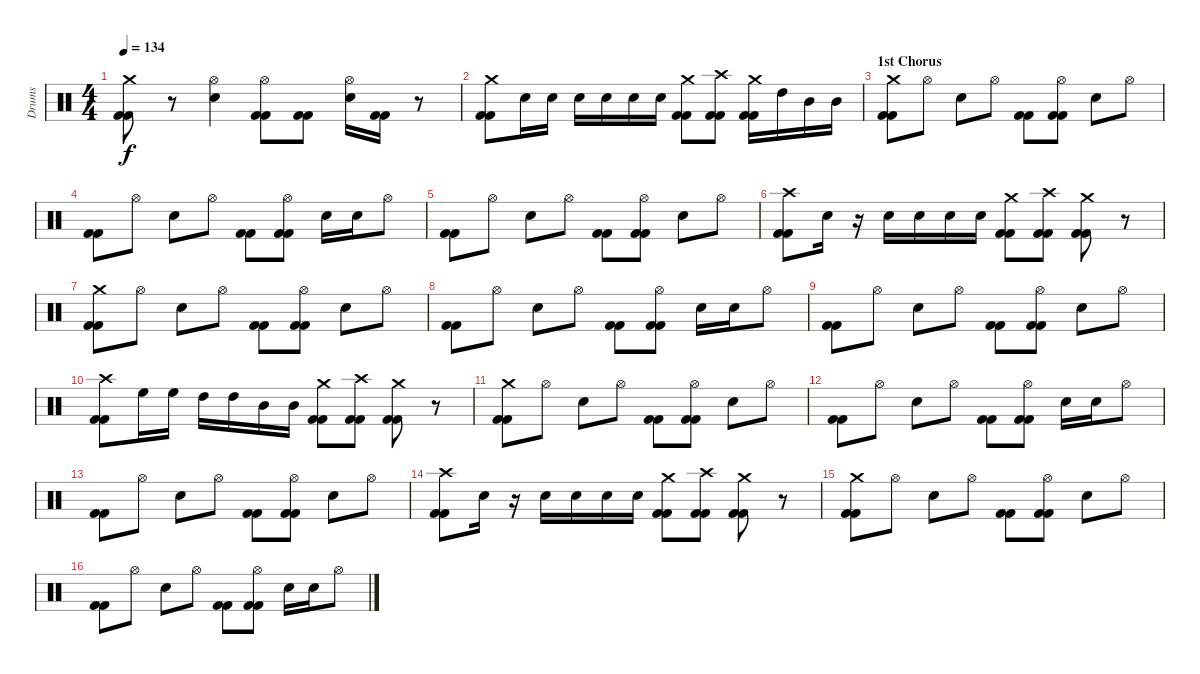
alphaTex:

\track ("Drums" "Drums") {instrument percussion}
\staff {score}
\articulation defaults
\ts (4 4)
\tempo 134
\clef neutral
\ks c
("Crash medium (hit)" "Kick (hit) 2" "Kick (hit) 2").8{dy f} r.8 ("Hi-Hat (open)" "Electric Snare (hit)").4 ("Hi-Hat (open)" "Kick (hit) 2" "Kick (hit) 2").8 ("Kick (hit) 2" "Kick (hit) 2").8 ("Hi-Hat (open)" "Electric Snare (hit)").16 ("Kick (hit) 2" "Kick (hit) 2").16 r.8 |
("Crash medium (hit)" "Kick (hit) 2" "Kick (hit) 2").8 "Electric Snare (hit)".16 "Electric Snare (hit)".16 "Electric Snare (hit)".16 "Electric Snare (hit)".16 "Electric Snare (hit)".16 "Electric Snare (hit)".16 ("Crash medium (hit)" "Kick (hit) 2" "Kick (hit) 2").8 ("Crash high (hit)" "Kick (hit) 2" "Kick (hit) 2").8 ("Crash medium (hit)" "Kick (hit) 2" "Kick (hit) 2").16 "High Tom (hit)".16 "Mid Tom (hit)".16 "Mid Tom (hit)".16 |
\section ("" "1st Chorus")
("Crash medium (hit)" "Kick (hit) 2" "Kick (hit) 2").8 "Hi-Hat (open)".8 "Electric Snare (hit)".8 "Hi-Hat (open)".8 ("Kick (hit) 2" "Kick (hit) 2").8 ("Hi-Hat (open)" "Kick (hit) 2" "Kick (hit) 2").8 "Electric Snare (hit)".8 "Hi-Hat (open)".8 |
("Kick (hit) 2" "Kick (hit) 2").8 "Hi-Hat (open)".8 "Electric Snare (hit)".8 "Hi-Hat (open)".8 ("Kick (hit) 2" "Kick (hit) 2").8 ("Hi-Hat (open)" "Kick (hit) 2" "Kick (hit) 2").8 "Electric Snare (hit)".16 "Electric Snare (hit)".16 "Hi-Hat (open)".8 |
("Kick (hit) 2" "Kick (hit) 2").8 "Hi-Hat (open)".8 "Electric Snare (hit)".8 "Hi-Hat (open)".8 ("Kick (hit) 2" "Kick (hit) 2").8 ("Hi-Hat (open)" "Kick (hit) 2" "Kick (hit) 2").8 "Electric Snare (hit)".8 "Hi-Hat (open)".8 |
("Crash high (hit)" "Kick (hit) 2" "Kick (hit) 2").8 "Electric Snare (hit)".16 r.16 "Electric Snare (hit)".16 "Electric Snare (hit)".16 "Electric Snare (hit)".16 "Electric Snare (hit)".16 ("Crash medium (hit)" "Kick (hit) 2" "Kick (hit) 2").8 ("Crash high (hit)" "Kick (hit) 2" "Kick (hit) 2").8 ("Crash medium (hit)" "Kick (hit) 2" "Kick (hit) 2").8 r.8 |
("Crash medium (hit)" "Kick (hit) 2" "Kick (hit) 2").8 "Hi-Hat (open)".8 "Electric Snare (hit)".8 "Hi-Hat (open)".8 ("Kick (hit) 2" "Kick (hit) 2").8 ("Hi-Hat (open)" "Kick (hit) 2" "Kick (hit) 2").8 "Electric Snare (hit)".8 "Hi-Hat (open)".8 |
("Kick (hit) 2" "Kick (hit) 2").8 "Hi-Hat (open)".8 "Electric Snare (hit)".8 "Hi-Hat (open)".8 ("Kick (hit) 2" "Kick (hit) 2").8 ("Hi-Hat (open)" "Kick (hit) 2" "Kick (hit) 2").8 "Electric Snare (hit)".16 "Electric Snare (hit)".16 "Hi-Hat (open)".8 |
("Kick (hit) 2" "Kick (hit) 2").8 "Hi-Hat (open)".8 "Electric Snare (hit)".8 "Hi-Hat (open)".8 ("Kick (hit) 2" "Kick (hit) 2").8 ("Hi-Hat (open)" "Kick (hit) 2" "Kick (hit) 2").8 "Electric Snare (hit)".8 "Hi-Hat (open)".8 |
("Crash high (hit)" "Kick (hit) 2" "Kick (hit) 2").8 "High Floor Tom (hit)".16 "High Floor Tom (hit)".16 "High Tom (hit)".16 "High Tom (hit)".16 "Mid Tom (hit)".16 "Mid Tom (hit)".16 ("Crash medium (hit)" "Kick (hit) 2" "Kick (hit) 2").8 ("Crash high (hit)" "Kick (hit) 2" "Kick (hit) 2").8 ("Crash medium (hit)" "Kick (hit) 2" "Kick (hit) 2").8 r.8 |
("Crash medium (hit)" "Kick (hit) 2" "Kick (hit) 2").8 "Hi-Hat (open)".8 "Electric Snare (hit)".8 "Hi-Hat (open)".8 ("Kick (hit) 2" "Kick (hit) 2").8 ("Hi-Hat (open)" "Kick (hit) 2" "Kick (hit) 2").8 "Electric Snare (hit)".8 "Hi-Hat (open)".8 |
("Kick (hit) 2" "Kick (hit) 2").8 "Hi-Hat (open)".8 "Electric Snare (hit)".8 "Hi-Hat (open)".8 ("Kick (hit) 2" "Kick (hit) 2").8 ("Hi-Hat (open)" "Kick (hit) 2" "Kick (hit) 2").8 "Electric Snare (hit)".16 "Electric Snare (hit)".16 "Hi-Hat (open)".8 |
("Kick (hit) 2" "Kick (hit) 2").8 "Hi-Hat (open)".8 "Electric Snare (hit)".8 "Hi-Hat (open)".8 ("Kick (hit) 2" "Kick (hit) 2").8 ("Hi-Hat (open)" "Kick (hit) 2" "Kick (hit) 2").8 "Electric Snare (hit)".8 "Hi-Hat (open)".8 |
("Crash high (hit)" "Kick (hit) 2" "Kick (hit) 2").8 "Electric Snare (hit)".16 r.16 "Electric Snare (hit)".16 "Electric Snare (hit)".16 "Electric Snare (hit)".16 "Electric Snare (hit)".16 ("Crash medium (hit)" "Kick (hit) 2" "Kick (hit) 2").8 ("Crash high (hit)" "Kick (hit) 2" "Kick (hit) 2").8 ("Crash medium (hit)" "Kick (hit) 2" "Kick (hit) 2").8 r.8 |
("Crash medium (hit)" "Kick (hit) 2" "Kick (hit) 2").8 "Hi-Hat (open)".8 "Electric Snare (hit)".8 "Hi-Hat (open)".8 ("Kick (hit) 2" "Kick (hit) 2").8 ("Hi-Hat (open)" "Kick (hit) 2" "Kick (hit) 2").8 "Electric Snare (hit)".8 "Hi-Hat (open)".8 |
("Kick (hit) 2" "Kick (hit) 2").8 "Hi-Hat (open)".8 "Electric Snare (hit)".8 "Hi-Hat (open)".8 ("Kick (hit) 2" "Kick (hit) 2").8 ("Hi-Hat (open)" "Kick (hit) 2" "Kick (hit) 2").8 "Electric Snare (hit)".16 "Electric Snare (hit)".16 "Hi-Hat (open)".8
